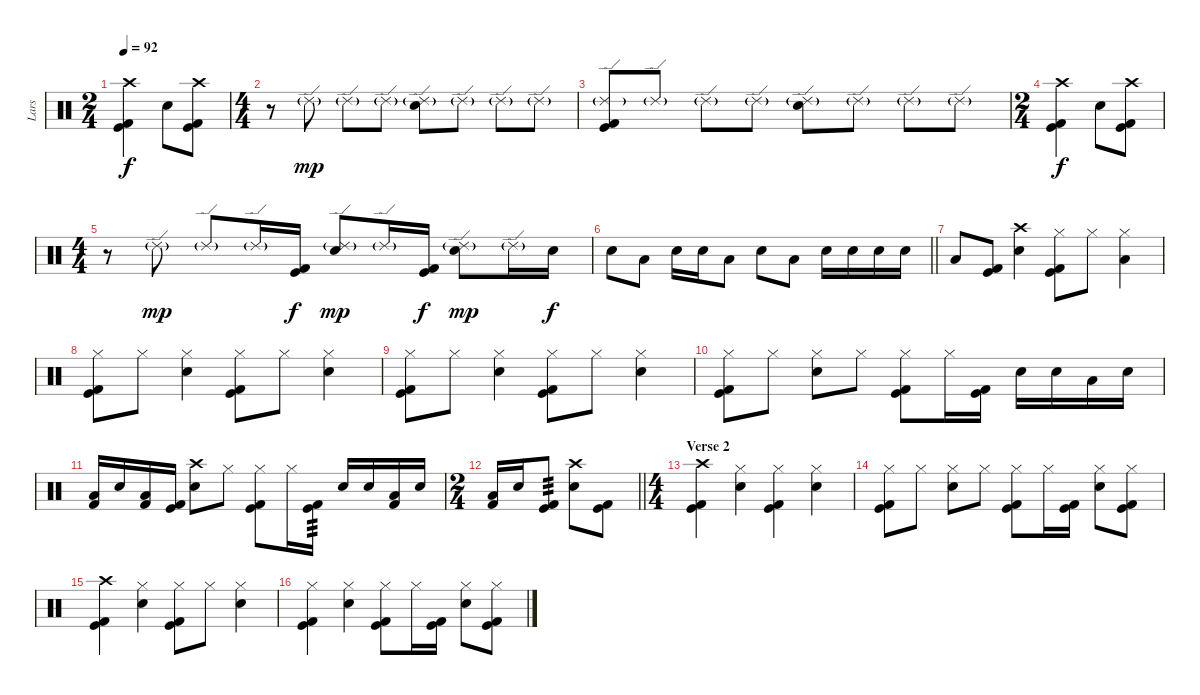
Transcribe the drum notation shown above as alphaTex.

\track ("Lars" "Lars") {instrument percussion}
\staff {score}
\articulation defaults
\ts (2 4)
\tempo 92
\clef neutral
\ks c
("Crash high (hit)" "Kick (hit)" "Kick (hit) 2").4{dy f} "Electric Snare (hit)".8 ("Crash high (hit)" "Kick (hit)" "Kick (hit) 2").8 |
\ts (4 4)
r.8 "Ride (edge) 2"{g}.8{dy mp} "Ride (edge) 2"{g}.8 "Ride (edge) 2"{g}.8 ("Ride (edge) 2"{g} "Electric Snare (hit)").8 "Ride (edge) 2"{g}.8 "Ride (edge) 2"{g}.8 "Ride (edge) 2"{g}.8 |
("Ride (edge) 2"{g} "Kick (hit)" "Kick (hit) 2").8 "Ride (edge) 2"{g}.8 "Ride (edge) 2"{g}.8 "Ride (edge) 2"{g}.8 ("Ride (edge) 2"{g} "Electric Snare (hit)").8 "Ride (edge) 2"{g}.8 "Ride (edge) 2"{g}.8 "Ride (edge) 2"{g}.8 |
\ts (2 4)
("Crash high (hit)" "Kick (hit)" "Kick (hit) 2").4{dy f} "Electric Snare (hit)".8 ("Crash high (hit)" "Kick (hit)" "Kick (hit) 2").8 |
\ts (4 4)
r.8 "Ride (edge) 2"{g}.8{dy mp} "Ride (edge) 2"{g}.8 "Ride (edge) 2"{g}.16 ("Kick (hit)" "Kick (hit) 2").16{dy f} ("Ride (edge) 2"{g} "Electric Snare (hit)").8{dy mp} "Ride (edge) 2"{g}.16 ("Kick (hit)" "Kick (hit) 2").16{dy f} ("Ride (edge) 2"{g} "Electric Snare (hit)").8{dy mp} "Ride (edge) 2"{g}.16 "Electric Snare (hit)".16{dy f} |
\barLineRight lightlight "Electric Snare (hit)".8 "Low Tom (hit)".8 "Electric Snare (hit)".16 "Electric Snare (hit)".16 "Low Tom (hit)".8 "Electric Snare (hit)".8 "Low Tom (hit)".8 "Electric Snare (hit)".16 "Electric Snare (hit)".16 "Electric Snare (hit)".16 "Electric Snare (hit)".16
|
\section ("" "")
"Low Tom (hit)".8 ("Kick (hit)" "Kick (hit) 2").8 ("Crash high (hit)" "Electric Snare (hit)").4 ("Hi-Hat (closed)" "Kick (hit)" "Kick (hit) 2").8 "Hi-Hat (closed)".8 ("Hi-Hat (closed)" "Low Tom (hit)").4 |
("Hi-Hat (closed)" "Kick (hit)" "Kick (hit) 2").8 "Hi-Hat (closed)".8 ("Hi-Hat (closed)" "Electric Snare (hit)").4 ("Hi-Hat (closed)" "Kick (hit)" "Kick (hit) 2").8 "Hi-Hat (closed)".8 ("Hi-Hat (closed)" "Electric Snare (hit)").4 |
("Hi-Hat (closed)" "Kick (hit)" "Kick (hit) 2").8 "Hi-Hat (closed)".8 ("Hi-Hat (closed)" "Electric Snare (hit)").4 ("Hi-Hat (closed)" "Kick (hit)" "Kick (hit) 2").8 "Hi-Hat (closed)".8 ("Hi-Hat (closed)" "Electric Snare (hit)").4 |
("Hi-Hat (closed)" "Kick (hit)" "Kick (hit) 2").8 "Hi-Hat (closed)".8 ("Hi-Hat (closed)" "Electric Snare (hit)").8 "Hi-Hat (closed)".8 ("Hi-Hat (closed)" "Kick (hit)" "Kick (hit) 2").8 "Hi-Hat (closed)".16 ("Kick (hit)" "Kick (hit) 2").16 "Electric Snare (hit)".16 "Electric Snare (hit)".16 "Low Tom (hit)".16 "Electric Snare (hit)".16 |
("Kick (hit) 2" "Low Floor Tom (hit)").16 "Electric Snare (hit)".16 ("Kick (hit) 2" "Low Floor Tom (hit)").16 ("Kick (hit)" "Kick (hit) 2").16 ("Crash high (hit)" "Electric Snare (hit)").8 "Hi-Hat (closed)".8 ("Hi-Hat (closed)" "Kick (hit)" "Kick (hit) 2").8 "Hi-Hat (closed)".16 ("Kick (hit)" "Kick (hit) 2").16{tp 3} "Electric Snare (hit)".16 "Electric Snare (hit)".16 ("Kick (hit) 2" "Low Floor Tom (hit)").16 "Electric Snare (hit)".16 |
\ts (2 4)
\barLineRight lightlight
("Kick (hit) 2" "Low Floor Tom (hit)").16 "Electric Snare (hit)".16 ("Kick (hit)" "Kick (hit) 2").8{tp 3} ("Crash high (hit)" "Electric Snare (hit)").8 ("Kick (hit)" "Kick (hit) 2").8 |
\ts (4 4)
\section ("" "Verse 2")
("Crash high (hit)" "Kick (hit)" "Kick (hit) 2").4 ("Hi-Hat (closed)" "Electric Snare (hit)").4 ("Hi-Hat (closed)" "Kick (hit)" "Kick (hit) 2").4 ("Hi-Hat (closed)" "Electric Snare (hit)").4 |
("Hi-Hat (closed)" "Kick (hit)" "Kick (hit) 2").8 "Hi-Hat (closed)".8 ("Hi-Hat (closed)" "Electric Snare (hit)").8 "Hi-Hat (closed)".8 ("Hi-Hat (closed)" "Kick (hit)" "Kick (hit) 2").8 "Hi-Hat (closed)".16 ("Kick (hit)" "Kick (hit) 2").16 ("Hi-Hat (closed)" "Electric Snare (hit)").8 ("Hi-Hat (closed)" "Kick (hit)" "Kick (hit) 2").8 |
("Crash high (hit)" "Kick (hit)" "Kick (hit) 2").4 ("Hi-Hat (closed)" "Electric Snare (hit)").4 ("Hi-Hat (closed)" "Kick (hit)" "Kick (hit) 2").8 "Hi-Hat (closed)".8 ("Hi-Hat (closed)" "Electric Snare (hit)").4 |
("Hi-Hat (closed)" "Kick (hit)" "Kick (hit) 2").4 ("Hi-Hat (closed)" "Electric Snare (hit)").4 ("Hi-Hat (closed)" "Kick (hit)" "Kick (hit) 2").8 "Hi-Hat (closed)".16 ("Kick (hit)" "Kick (hit) 2").16 ("Hi-Hat (closed)" "Electric Snare (hit)").8 ("Hi-Hat (closed)" "Kick (hit)" "Kick (hit) 2").8
